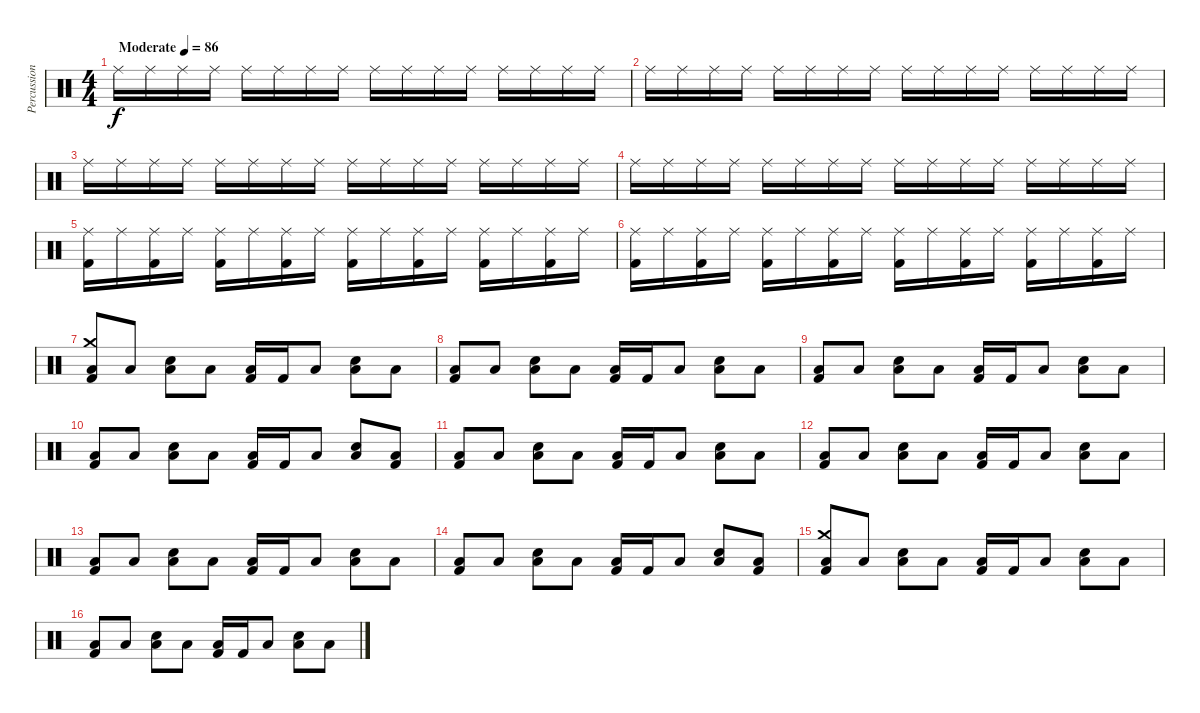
\track ("Percussion" "Percussion") {instrument percussion}
\staff {score}
\articulation defaults
\ts (4 4)
\tempo (86 "Moderate")
\clef neutral
\ks c "Ride (middle)".16{dy f} "Ride (middle)".16 "Ride (middle)".16 "Ride (middle)".16 "Ride (middle)".16 "Ride (middle)".16 "Ride (middle)".16 "Ride (middle)".16 "Ride (middle)".16 "Ride (middle)".16 "Ride (middle)".16 "Ride (middle)".16 "Ride (middle)".16 "Ride (middle)".16 "Ride (middle)".16 "Ride (middle)".16
|
"Ride (middle)".16 "Ride (middle)".16 "Ride (middle)".16 "Ride (middle)".16 "Ride (middle)".16 "Ride (middle)".16 "Ride (middle)".16 "Ride (middle)".16 "Ride (middle)".16 "Ride (middle)".16 "Ride (middle)".16 "Ride (middle)".16 "Ride (middle)".16 "Ride (middle)".16 "Ride (middle)".16 "Ride (middle)".16 |
"Ride (middle)".16 "Ride (middle)".16 "Ride (middle)".16 "Ride (middle)".16 "Ride (middle)".16 "Ride (middle)".16 "Ride (middle)".16 "Ride (middle)".16 "Ride (middle)".16 "Ride (middle)".16 "Ride (middle)".16 "Ride (middle)".16 "Ride (middle)".16 "Ride (middle)".16 "Ride (middle)".16 "Ride (middle)".16 |
"Ride (middle)".16 "Ride (middle)".16 "Ride (middle)".16 "Ride (middle)".16 "Ride (middle)".16 "Ride (middle)".16 "Ride (middle)".16 "Ride (middle)".16 "Ride (middle)".16 "Ride (middle)".16 "Ride (middle)".16 "Ride (middle)".16 "Ride (middle)".16 "Ride (middle)".16 "Ride (middle)".16 "Ride (middle)".16 |
("Ride (middle)" "Kick (hit) 2").16 "Ride (middle)".16 ("Ride (middle)" "Kick (hit) 2").16 "Ride (middle)".16 ("Ride (middle)" "Kick (hit) 2").16 "Ride (middle)".16 ("Ride (middle)" "Kick (hit) 2").16 "Ride (middle)".16 ("Ride (middle)" "Kick (hit) 2").16 "Ride (middle)".16 ("Ride (middle)" "Kick (hit) 2").16 "Ride (middle)".16 ("Ride (middle)" "Kick (hit) 2").16 "Ride (middle)".16 ("Ride (middle)" "Kick (hit) 2").16 "Ride (middle)".16 |
("Ride (middle)" "Kick (hit) 2").16 "Ride (middle)".16 ("Ride (middle)" "Kick (hit) 2").16 "Ride (middle)".16 ("Ride (middle)" "Kick (hit) 2").16 "Ride (middle)".16 ("Ride (middle)" "Kick (hit) 2").16 "Ride (middle)".16 ("Ride (middle)" "Kick (hit) 2").16 "Ride (middle)".16 ("Ride (middle)" "Kick (hit) 2").16 "Ride (middle)".16 ("Ride (middle)" "Kick (hit) 2").16 "Ride (middle)".16 ("Ride (middle)" "Kick (hit) 2").16 "Ride (middle)".16 |
("Crash medium (hit)" "Low Floor Tom (hit)" "Kick (hit) 2").8 "Low Floor Tom (hit)".8 ("Low Floor Tom (hit)" "Electric Snare (hit)").8 "Low Floor Tom (hit)".8 ("Low Floor Tom (hit)" "Kick (hit) 2").16 "Kick (hit) 2".16 "Low Floor Tom (hit)".8 ("Low Floor Tom (hit)" "Electric Snare (hit)").8 "Low Floor Tom (hit)".8 |
("Low Floor Tom (hit)" "Kick (hit) 2").8 "Low Floor Tom (hit)".8 ("Low Floor Tom (hit)" "Electric Snare (hit)").8 "Low Floor Tom (hit)".8 ("Low Floor Tom (hit)" "Kick (hit) 2").16 "Kick (hit) 2".16 "Low Floor Tom (hit)".8 ("Low Floor Tom (hit)" "Electric Snare (hit)").8 "Low Floor Tom (hit)".8 |
("Low Floor Tom (hit)" "Kick (hit) 2").8 "Low Floor Tom (hit)".8 ("Low Floor Tom (hit)" "Electric Snare (hit)").8 "Low Floor Tom (hit)".8 ("Low Floor Tom (hit)" "Kick (hit) 2").16 "Kick (hit) 2".16 "Low Floor Tom (hit)".8 ("Low Floor Tom (hit)" "Electric Snare (hit)").8 "Low Floor Tom (hit)".8 |
("Low Floor Tom (hit)" "Kick (hit) 2").8 "Low Floor Tom (hit)".8 ("Low Floor Tom (hit)" "Electric Snare (hit)").8 "Low Floor Tom (hit)".8 ("Low Floor Tom (hit)" "Kick (hit) 2").16 "Kick (hit) 2".16 "Low Floor Tom (hit)".8 ("Low Floor Tom (hit)" "Electric Snare (hit)").8 ("Low Floor Tom (hit)" "Kick (hit) 2").8 |
("Low Floor Tom (hit)" "Kick (hit) 2").8 "Low Floor Tom (hit)".8 ("Low Floor Tom (hit)" "Electric Snare (hit)").8 "Low Floor Tom (hit)".8 ("Low Floor Tom (hit)" "Kick (hit) 2").16 "Kick (hit) 2".16 "Low Floor Tom (hit)".8 ("Low Floor Tom (hit)" "Electric Snare (hit)").8 "Low Floor Tom (hit)".8 |
("Low Floor Tom (hit)" "Kick (hit) 2").8 "Low Floor Tom (hit)".8 ("Low Floor Tom (hit)" "Electric Snare (hit)").8 "Low Floor Tom (hit)".8 ("Low Floor Tom (hit)" "Kick (hit) 2").16 "Kick (hit) 2".16 "Low Floor Tom (hit)".8 ("Low Floor Tom (hit)" "Electric Snare (hit)").8 "Low Floor Tom (hit)".8 |
("Low Floor Tom (hit)" "Kick (hit) 2").8 "Low Floor Tom (hit)".8 ("Low Floor Tom (hit)" "Electric Snare (hit)").8 "Low Floor Tom (hit)".8 ("Low Floor Tom (hit)" "Kick (hit) 2").16 "Kick (hit) 2".16 "Low Floor Tom (hit)".8 ("Low Floor Tom (hit)" "Electric Snare (hit)").8 "Low Floor Tom (hit)".8 |
("Low Floor Tom (hit)" "Kick (hit) 2").8 "Low Floor Tom (hit)".8 ("Low Floor Tom (hit)" "Electric Snare (hit)").8 "Low Floor Tom (hit)".8 ("Low Floor Tom (hit)" "Kick (hit) 2").16 "Kick (hit) 2".16 "Low Floor Tom (hit)".8 ("Low Floor Tom (hit)" "Electric Snare (hit)").8 ("Low Floor Tom (hit)" "Kick (hit) 2").8 |
("Crash medium (hit)" "Low Floor Tom (hit)" "Kick (hit) 2").8 "Low Floor Tom (hit)".8 ("Low Floor Tom (hit)" "Electric Snare (hit)").8 "Low Floor Tom (hit)".8 ("Low Floor Tom (hit)" "Kick (hit) 2").16 "Kick (hit) 2".16 "Low Floor Tom (hit)".8 ("Low Floor Tom (hit)" "Electric Snare (hit)").8 "Low Floor Tom (hit)".8 |
("Low Floor Tom (hit)" "Kick (hit) 2").8 "Low Floor Tom (hit)".8 ("Low Floor Tom (hit)" "Electric Snare (hit)").8 "Low Floor Tom (hit)".8 ("Low Floor Tom (hit)" "Kick (hit) 2").16 "Kick (hit) 2".16 "Low Floor Tom (hit)".8 ("Low Floor Tom (hit)" "Electric Snare (hit)").8 "Low Floor Tom (hit)".8
